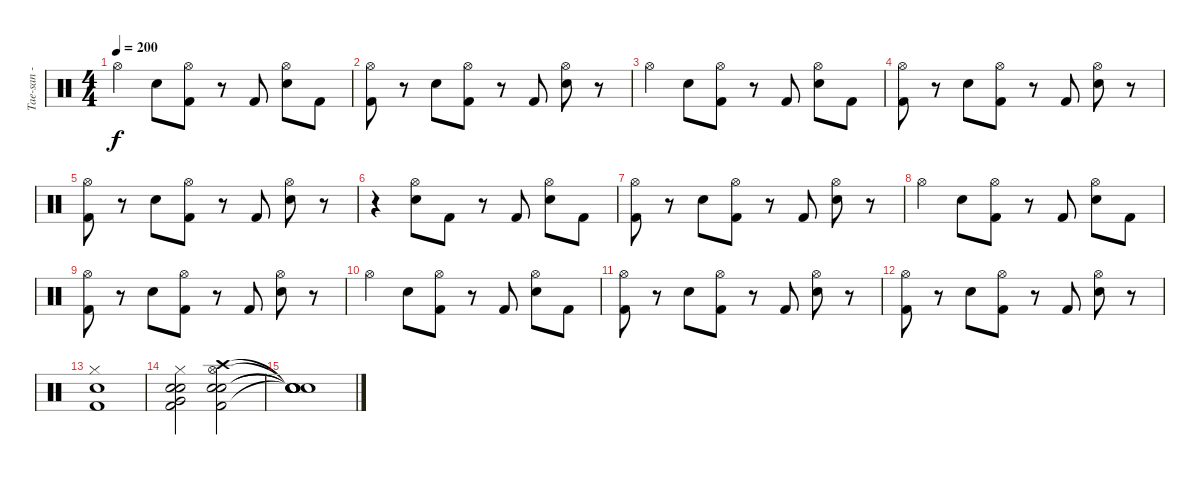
\track ("Tae-san - Drums" "Tae-san - ") {instrument percussion}
\staff {score}
\articulation defaults
\ts (4 4)
\tempo 200
\clef neutral
\ks c "Hi-Hat (open)".4{dy f} "Electric Snare (hit)".8
("Kick (hit) 2" "Hi-Hat (open)").8 r.8 "Kick (hit) 2".8 ("Electric Snare (hit)" "Hi-Hat (open)").8 "Kick (hit) 2".8 |
("Kick (hit) 2" "Hi-Hat (open)").8 r.8 "Electric Snare (hit)".8 ("Kick (hit) 2" "Hi-Hat (open)").8 r.8 "Kick (hit) 2".8 ("Electric Snare (hit)" "Hi-Hat (open)").8 r.8 |
"Hi-Hat (open)".4 "Electric Snare (hit)".8 ("Kick (hit) 2" "Hi-Hat (open)").8 r.8 "Kick (hit) 2".8 ("Electric Snare (hit)" "Hi-Hat (open)").8 "Kick (hit) 2".8 |
("Kick (hit) 2" "Hi-Hat (open)").8 r.8 "Electric Snare (hit)".8 ("Kick (hit) 2" "Hi-Hat (open)").8 r.8 "Kick (hit) 2".8 ("Electric Snare (hit)" "Hi-Hat (open)").8 r.8 |
("Kick (hit) 2" "Hi-Hat (open)").8 r.8 "Electric Snare (hit)".8 ("Kick (hit) 2" "Hi-Hat (open)").8 r.8 "Kick (hit) 2".8 ("Electric Snare (hit)" "Hi-Hat (open)").8 r.8 |
r.4 ("Electric Snare (hit)" "Hi-Hat (open)").8 "Kick (hit) 2".8 r.8 "Kick (hit) 2".8 ("Electric Snare (hit)" "Hi-Hat (open)").8 "Kick (hit) 2".8 |
("Kick (hit) 2" "Hi-Hat (open)").8 r.8 "Electric Snare (hit)".8 ("Kick (hit) 2" "Hi-Hat (open)").8 r.8 "Kick (hit) 2".8 ("Electric Snare (hit)" "Hi-Hat (open)").8 r.8 |
"Hi-Hat (open)".4 "Electric Snare (hit)".8 ("Kick (hit) 2" "Hi-Hat (open)").8 r.8 "Kick (hit) 2".8 ("Electric Snare (hit)" "Hi-Hat (open)").8 "Kick (hit) 2".8 |
("Kick (hit) 2" "Hi-Hat (open)").8 r.8 "Electric Snare (hit)".8 ("Kick (hit) 2" "Hi-Hat (open)").8 r.8 "Kick (hit) 2".8 ("Electric Snare (hit)" "Hi-Hat (open)").8 r.8 |
"Hi-Hat (open)".4 "Electric Snare (hit)".8 ("Kick (hit) 2" "Hi-Hat (open)").8 r.8 "Kick (hit) 2".8 ("Electric Snare (hit)" "Hi-Hat (open)").8 "Kick (hit) 2".8 |
("Kick (hit) 2" "Hi-Hat (open)").8 r.8 "Electric Snare (hit)".8 ("Kick (hit) 2" "Hi-Hat (open)").8 r.8 "Kick (hit) 2".8 ("Electric Snare (hit)" "Hi-Hat (open)").8 r.8 |
("Kick (hit) 2" "Hi-Hat (open)").8 r.8 "Electric Snare (hit)".8 ("Kick (hit) 2" "Hi-Hat (open)").8 r.8 "Kick (hit) 2".8 ("Electric Snare (hit)" "Hi-Hat (open)").8 r.8 |
("Kick (hit) 2" "Electric Snare (hit)" "Hi-Hat (closed)").1 |
("Kick (hit) 2" "Very Low Tom (hit)" "Electric Snare (hit)" "Snare (hit) 2" "Hi-Hat (closed)").2 ("Kick (hit) 2" "Electric Snare (hit)" "Snare (hit) 2" "Hi-Hat (open)" "Crash high (hit)").2 |
("Snare (hit)"{t} "Snare (hit)"{t} "Snare (hit)"{t} "Snare (hit)"{t} "Snare (hit)"{t}).1
